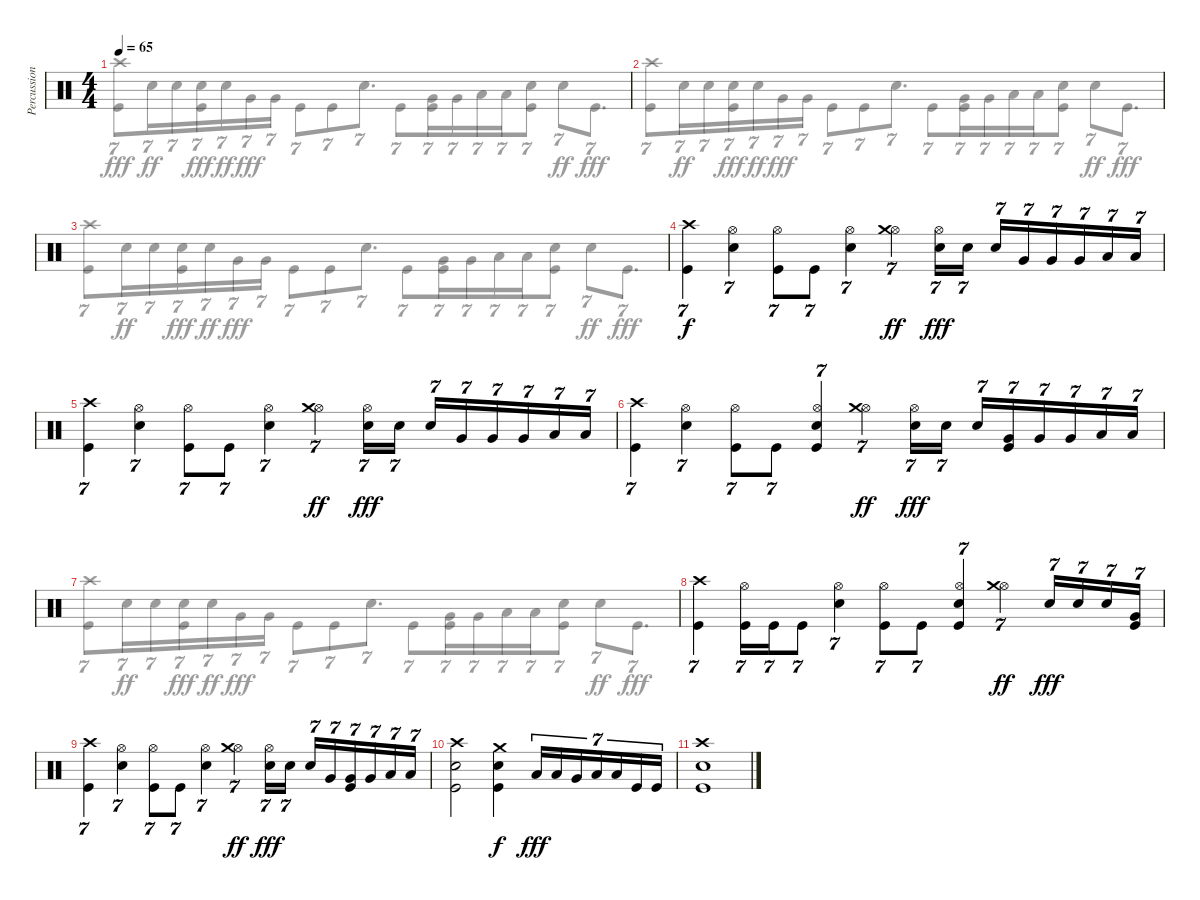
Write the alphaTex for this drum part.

\track ("Percussion" "Percussion") {instrument percussion}
\staff {score}
\articulation defaults
\voice
\ts (4 4)
\tempo 65
\clef neutral
\ks c
|
|
|
("Crash high (hit)" "Kick (hit)").4{tu (7 4)} ("Hi-Hat (open)" "Snare (hit) 2").4{tu (7 4)} ("Hi-Hat (open)" "Kick (hit)").8{tu (7 4)} "Kick (hit)".8{tu (7 4)} ("Hi-Hat (open)" "Snare (hit) 2").4{tu (7 4)} ("Hi-Hat (open)" "Crash medium (hit)").4{tu (7 4) dy ff} ("Hi-Hat (open)" "Snare (hit) 2").16{tu (7 4) dy fff} "Snare (hit) 2".16{tu (7 4)} "Snare (hit) 2".16{tu (7 4)} "Very Low Tom (hit)".16{tu (7 4)} "Very Low Tom (hit)".16{tu (7 4)} "Very Low Tom (hit)".16{tu (7 4)} "Low Floor Tom (hit)".16{tu (7 4)} "Low Floor Tom (hit)".16{tu (7 4)} |
("Crash high (hit)" "Kick (hit)").4{tu (7 4)} ("Hi-Hat (open)" "Snare (hit) 2").4{tu (7 4)} ("Hi-Hat (open)" "Kick (hit)").8{tu (7 4)} "Kick (hit)".8{tu (7 4)} ("Hi-Hat (open)" "Snare (hit) 2").4{tu (7 4)} ("Hi-Hat (open)" "Crash medium (hit)").4{tu (7 4) dy ff} ("Hi-Hat (open)" "Snare (hit) 2").16{tu (7 4) dy fff} "Snare (hit) 2".16{tu (7 4)} "Snare (hit) 2".16{tu (7 4)} "Very Low Tom (hit)".16{tu (7 4)} "Very Low Tom (hit)".16{tu (7 4)} "Very Low Tom (hit)".16{tu (7 4)} "Low Floor Tom (hit)".16{tu (7 4)} "Low Floor Tom (hit)".16{tu (7 4)} |
("Crash high (hit)" "Kick (hit)").4{tu (7 4)} ("Hi-Hat (open)" "Snare (hit) 2").4{tu (7 4)} ("Hi-Hat (open)" "Kick (hit)").8{tu (7 4)} "Kick (hit)".8{tu (7 4)} ("Hi-Hat (open)" "Snare (hit) 2" "Kick (hit)").4{tu (7 4)} ("Hi-Hat (open)" "Crash medium (hit)").4{tu (7 4) dy ff} ("Hi-Hat (open)" "Snare (hit) 2").16{tu (7 4) dy fff} "Snare (hit) 2".16{tu (7 4)} "Snare (hit) 2".16{tu (7 4)} ("Very Low Tom (hit)" "Kick (hit)").16{tu (7 4)} "Very Low Tom (hit)".16{tu (7 4)} "Very Low Tom (hit)".16{tu (7 4)} "Low Floor Tom (hit)".16{tu (7 4)} "Low Floor Tom (hit)".16{tu (7 4)} |
|
("Crash high (hit)" "Kick (hit)").4{tu (7 4)} ("Hi-Hat (open)" "Kick (hit)").16{tu (7 4)} "Kick (hit)".16{tu (7 4)} "Kick (hit)".8{tu (7 4)} ("Hi-Hat (open)" "Snare (hit) 2").4{tu (7 4)} ("Hi-Hat (open)" "Kick (hit)").8{tu (7 4)} "Kick (hit)".8{tu (7 4)} ("Hi-Hat (open)" "Snare (hit) 2" "Kick (hit)").4{tu (7 4)} ("Hi-Hat (open)" "Crash medium (hit)").4{tu (7 4) dy ff} "Snare (hit) 2".16{tu (7 4) dy fff} "Snare (hit) 2".16{tu (7 4)} "Snare (hit) 2".16{tu (7 4)} ("Very Low Tom (hit)" "Kick (hit)").16{tu (7 4)} |
("Crash high (hit)" "Kick (hit)").4{tu (7 4)} ("Hi-Hat (open)" "Snare (hit) 2").4{tu (7 4)} ("Hi-Hat (open)" "Kick (hit)").8{tu (7 4)} "Kick (hit)".8{tu (7 4)} ("Hi-Hat (open)" "Snare (hit) 2").4{tu (7 4)} ("Hi-Hat (open)" "Crash medium (hit)").4{tu (7 4) dy ff} ("Hi-Hat (open)" "Snare (hit) 2").16{tu (7 4) dy fff} "Snare (hit) 2".16{tu (7 4)} "Snare (hit) 2".16{tu (7 4)} "Very Low Tom (hit)".16{tu (7 4)} ("Very Low Tom (hit)" "Kick (hit)").16{tu (7 4)} "Very Low Tom (hit)".16{tu (7 4)} "Low Floor Tom (hit)".16{tu (7 4)} "Low Floor Tom (hit)".16{tu (7 4)} |
("Crash high (hit)" "Snare (hit) 2" "Kick (hit)").2 ("Crash medium (hit)" "Snare (hit) 2" "Kick (hit)").4{dy f} "Low Tom (hit)".16{tu (7 4) dy fff} "Low Tom (hit)".16{tu (7 4)} "Very Low Tom (hit)".16{tu (7 4)} "Low Floor Tom (hit)".16{tu (7 4)} "Low Floor Tom (hit)".16{tu (7 4)} "Kick (hit)".16{tu (7 4)} "Kick (hit)".16{tu (7 4)} |
("Crash high (hit)" "Snare (hit) 2" "Kick (hit)").1 |
\voice
\clef neutral
\ottava regular
\simile none
\ks c
("Crash high (hit)" "Kick (hit)").8{tu (7 4) dy fff} "Snare (hit) 2".16{tu (7 4) dy ff} "Snare (hit) 2".16{tu (7 4)} ("Snare (hit) 2" "Kick (hit)").16{tu (7 4) dy fff} "Snare (hit) 2".16{tu (7 4) dy ff} "Very Low Tom (hit)".16{tu (7 4) dy fff} "Very Low Tom (hit)".16{tu (7 4)} "Kick (hit)".8{tu (7 4)} "Kick (hit)".8{tu (7 4)} "Snare (hit) 2".8{d tu (7 4)} "Kick (hit)".8{tu (7 4)} ("Very Low Tom (hit)" "Kick (hit)").16{tu (7 4)} "Very Low Tom (hit)".16{tu (7 4)} "Low Floor Tom (hit)".16{tu (7 4)} "Low Floor Tom (hit)".16{tu (7 4)} ("Snare (hit) 2" "Kick (hit)").8{tu (7 4)} "Snare (hit) 2".8{tu (7 4) dy ff} "Kick (hit)".8{d tu (7 4) dy fff} |
("Crash high (hit)" "Kick (hit)").8{tu (7 4)} "Snare (hit) 2".16{tu (7 4) dy ff} "Snare (hit) 2".16{tu (7 4)} ("Snare (hit) 2" "Kick (hit)").16{tu (7 4) dy fff} "Snare (hit) 2".16{tu (7 4) dy ff} "Very Low Tom (hit)".16{tu (7 4) dy fff} "Very Low Tom (hit)".16{tu (7 4)} "Kick (hit)".8{tu (7 4)} "Kick (hit)".8{tu (7 4)} "Snare (hit) 2".8{d tu (7 4)} "Kick (hit)".8{tu (7 4)} ("Very Low Tom (hit)" "Kick (hit)").16{tu (7 4)} "Very Low Tom (hit)".16{tu (7 4)} "Low Floor Tom (hit)".16{tu (7 4)} "Low Floor Tom (hit)".16{tu (7 4)} ("Snare (hit) 2" "Kick (hit)").8{tu (7 4)} "Snare (hit) 2".8{tu (7 4) dy ff} "Kick (hit)".8{d tu (7 4) dy fff} |
("Crash high (hit)" "Kick (hit)").8{tu (7 4)} "Snare (hit) 2".16{tu (7 4) dy ff} "Snare (hit) 2".16{tu (7 4)} ("Snare (hit) 2" "Kick (hit)").16{tu (7 4) dy fff} "Snare (hit) 2".16{tu (7 4) dy ff} "Very Low Tom (hit)".16{tu (7 4) dy fff} "Very Low Tom (hit)".16{tu (7 4)} "Kick (hit)".8{tu (7 4)} "Kick (hit)".8{tu (7 4)} "Snare (hit) 2".8{d tu (7 4)} "Kick (hit)".8{tu (7 4)} ("Very Low Tom (hit)" "Kick (hit)").16{tu (7 4)} "Very Low Tom (hit)".16{tu (7 4)} "Low Floor Tom (hit)".16{tu (7 4)} "Low Floor Tom (hit)".16{tu (7 4)} ("Snare (hit) 2" "Kick (hit)").8{tu (7 4)} "Snare (hit) 2".8{tu (7 4) dy ff} "Kick (hit)".8{d tu (7 4) dy fff} |
|
|
|
("Crash high (hit)" "Kick (hit)").8{tu (7 4)} "Snare (hit) 2".16{tu (7 4) dy ff} "Snare (hit) 2".16{tu (7 4)} ("Snare (hit) 2" "Kick (hit)").16{tu (7 4) dy fff} "Snare (hit) 2".16{tu (7 4) dy ff} "Very Low Tom (hit)".16{tu (7 4) dy fff} "Very Low Tom (hit)".16{tu (7 4)} "Kick (hit)".8{tu (7 4)} "Kick (hit)".8{tu (7 4)} "Snare (hit) 2".8{d tu (7 4)} "Kick (hit)".8{tu (7 4)} ("Very Low Tom (hit)" "Kick (hit)").16{tu (7 4)} "Very Low Tom (hit)".16{tu (7 4)} "Low Floor Tom (hit)".16{tu (7 4)} "Low Floor Tom (hit)".16{tu (7 4)} ("Snare (hit) 2" "Kick (hit)").8{tu (7 4)} "Snare (hit) 2".8{tu (7 4) dy ff} "Kick (hit)".8{d tu (7 4) dy fff} |
|
|
|
|
